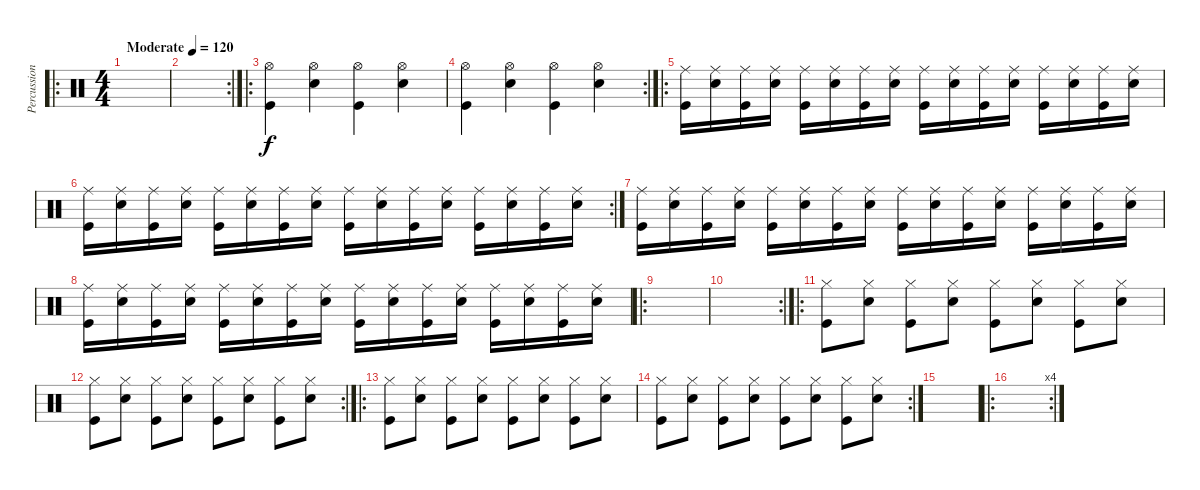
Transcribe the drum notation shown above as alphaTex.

\track ("Percussion" "Percussion") {instrument percussion}
\staff {score}
\articulation defaults
\ro
\ts (4 4)
\tempo (120 "Moderate")
\clef neutral
\ks c
|
\rc 2
|
\ro
("Hi-Hat (open)" "Kick (hit)").4 ("Hi-Hat (open)" "Snare (hit) 2").4 ("Hi-Hat (open)" "Kick (hit)").4 ("Hi-Hat (open)" "Snare (hit) 2").4 |
\rc 2
("Hi-Hat (open)" "Kick (hit)").4 ("Hi-Hat (open)" "Snare (hit) 2").4 ("Hi-Hat (open)" "Kick (hit)").4 ("Hi-Hat (open)" "Snare (hit) 2").4 |
\ro
("Ride (middle)" "Kick (hit)").16 ("Ride (middle)" "Snare (hit) 2").16 ("Ride (middle)" "Kick (hit)").16 ("Ride (middle)" "Snare (hit) 2").16 ("Ride (middle)" "Kick (hit)").16 ("Ride (middle)" "Snare (hit) 2").16 ("Ride (middle)" "Kick (hit)").16 ("Ride (middle)" "Snare (hit) 2").16 ("Ride (middle)" "Kick (hit)").16 ("Ride (middle)" "Snare (hit) 2").16 ("Ride (middle)" "Kick (hit)").16 ("Ride (middle)" "Snare (hit) 2").16 ("Ride (middle)" "Kick (hit)").16 ("Ride (middle)" "Snare (hit) 2").16 ("Ride (middle)" "Kick (hit)").16 ("Ride (middle)" "Snare (hit) 2").16 |
\rc 2
("Ride (middle)" "Kick (hit)").16 ("Ride (middle)" "Snare (hit) 2").16 ("Ride (middle)" "Kick (hit)").16 ("Ride (middle)" "Snare (hit) 2").16 ("Ride (middle)" "Kick (hit)").16 ("Ride (middle)" "Snare (hit) 2").16 ("Ride (middle)" "Kick (hit)").16 ("Ride (middle)" "Snare (hit) 2").16 ("Ride (middle)" "Kick (hit)").16 ("Ride (middle)" "Snare (hit) 2").16 ("Ride (middle)" "Kick (hit)").16 ("Ride (middle)" "Snare (hit) 2").16 ("Ride (middle)" "Kick (hit)").16 ("Ride (middle)" "Snare (hit) 2").16 ("Ride (middle)" "Kick (hit)").16 ("Ride (middle)" "Snare (hit) 2").16 |
("Ride (middle)" "Kick (hit)").16 ("Ride (middle)" "Snare (hit) 2").16 ("Ride (middle)" "Kick (hit)").16 ("Ride (middle)" "Snare (hit) 2").16 ("Ride (middle)" "Kick (hit)").16 ("Ride (middle)" "Snare (hit) 2").16 ("Ride (middle)" "Kick (hit)").16 ("Ride (middle)" "Snare (hit) 2").16 ("Ride (middle)" "Kick (hit)").16 ("Ride (middle)" "Snare (hit) 2").16 ("Ride (middle)" "Kick (hit)").16 ("Ride (middle)" "Snare (hit) 2").16 ("Ride (middle)" "Kick (hit)").16 ("Ride (middle)" "Snare (hit) 2").16 ("Ride (middle)" "Kick (hit)").16 ("Ride (middle)" "Snare (hit) 2").16 |
("Ride (middle)" "Kick (hit)").16 ("Ride (middle)" "Snare (hit) 2").16 ("Ride (middle)" "Kick (hit)").16 ("Ride (middle)" "Snare (hit) 2").16 ("Ride (middle)" "Kick (hit)").16 ("Ride (middle)" "Snare (hit) 2").16 ("Ride (middle)" "Kick (hit)").16 ("Ride (middle)" "Snare (hit) 2").16 ("Ride (middle)" "Kick (hit)").16 ("Ride (middle)" "Snare (hit) 2").16 ("Ride (middle)" "Kick (hit)").16 ("Ride (middle)" "Snare (hit) 2").16 ("Ride (middle)" "Kick (hit)").16 ("Ride (middle)" "Snare (hit) 2").16 ("Ride (middle)" "Kick (hit)").16 ("Ride (middle)" "Snare (hit) 2").16 |
\ro
|
\rc 2
|
\ro
("Hi-Hat (closed)" "Kick (hit)").8 ("Hi-Hat (closed)" "Snare (hit) 2").8 ("Hi-Hat (closed)" "Kick (hit)").8 ("Hi-Hat (closed)" "Snare (hit) 2").8 ("Hi-Hat (closed)" "Kick (hit)").8 ("Hi-Hat (closed)" "Snare (hit) 2").8 ("Hi-Hat (closed)" "Kick (hit)").8 ("Hi-Hat (closed)" "Snare (hit) 2").8 |
\rc 2
("Hi-Hat (closed)" "Kick (hit)").8 ("Hi-Hat (closed)" "Snare (hit) 2").8 ("Hi-Hat (closed)" "Kick (hit)").8 ("Hi-Hat (closed)" "Snare (hit) 2").8 ("Hi-Hat (closed)" "Kick (hit)").8 ("Hi-Hat (closed)" "Snare (hit) 2").8 ("Hi-Hat (closed)" "Kick (hit)").8 ("Hi-Hat (closed)" "Snare (hit) 2").8 |
\ro
("Hi-Hat (closed)" "Kick (hit)").8 ("Hi-Hat (closed)" "Snare (hit) 2").8 ("Hi-Hat (closed)" "Kick (hit)").8 ("Hi-Hat (closed)" "Snare (hit) 2").8 ("Hi-Hat (closed)" "Kick (hit)").8 ("Hi-Hat (closed)" "Snare (hit) 2").8 ("Hi-Hat (closed)" "Kick (hit)").8 ("Hi-Hat (closed)" "Snare (hit) 2").8 |
\rc 2
("Hi-Hat (closed)" "Kick (hit)").8 ("Hi-Hat (closed)" "Snare (hit) 2").8 ("Hi-Hat (closed)" "Kick (hit)").8 ("Hi-Hat (closed)" "Snare (hit) 2").8 ("Hi-Hat (closed)" "Kick (hit)").8 ("Hi-Hat (closed)" "Snare (hit) 2").8 ("Hi-Hat (closed)" "Kick (hit)").8 ("Hi-Hat (closed)" "Snare (hit) 2").8 |
|
\ro
\rc 4
